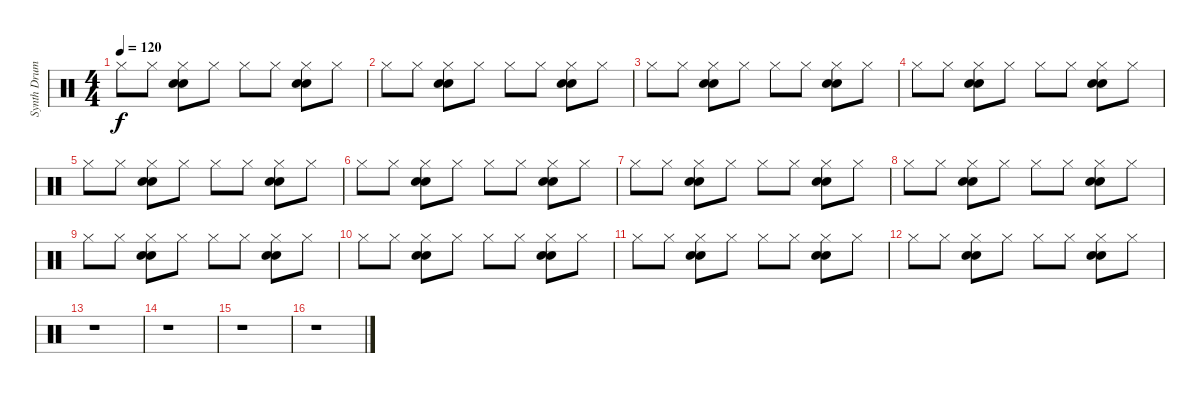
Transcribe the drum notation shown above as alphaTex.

\track ("Synth Drums" "Synth Drum") {instrument percussion}
\staff {score}
\articulation defaults
\ts (4 4)
\tempo 120
\clef neutral
\ks c "Hi-Hat (closed)".8{dy f} "Hi-Hat (closed)".8
("Hi-Hat (closed)" "Snare (hit) 2" "Hand Clap (hit)").8 "Hi-Hat (closed)".8 "Hi-Hat (closed)".8 "Hi-Hat (closed)".8 ("Hi-Hat (closed)" "Snare (hit) 2" "Hand Clap (hit)").8 "Hi-Hat (closed)".8 |
"Hi-Hat (closed)".8 "Hi-Hat (closed)".8 ("Hi-Hat (closed)" "Snare (hit) 2" "Hand Clap (hit)").8 "Hi-Hat (closed)".8 "Hi-Hat (closed)".8 "Hi-Hat (closed)".8 ("Hi-Hat (closed)" "Snare (hit) 2" "Hand Clap (hit)").8 "Hi-Hat (closed)".8 |
"Hi-Hat (closed)".8 "Hi-Hat (closed)".8 ("Hi-Hat (closed)" "Snare (hit) 2" "Hand Clap (hit)").8 "Hi-Hat (closed)".8 "Hi-Hat (closed)".8 "Hi-Hat (closed)".8 ("Hi-Hat (closed)" "Snare (hit) 2" "Hand Clap (hit)").8 "Hi-Hat (closed)".8 |
"Hi-Hat (closed)".8 "Hi-Hat (closed)".8 ("Hi-Hat (closed)" "Snare (hit) 2" "Hand Clap (hit)").8 "Hi-Hat (closed)".8 "Hi-Hat (closed)".8 "Hi-Hat (closed)".8 ("Hi-Hat (closed)" "Snare (hit) 2" "Hand Clap (hit)").8 "Hi-Hat (closed)".8 |
"Hi-Hat (closed)".8 "Hi-Hat (closed)".8 ("Hi-Hat (closed)" "Snare (hit) 2" "Hand Clap (hit)").8 "Hi-Hat (closed)".8 "Hi-Hat (closed)".8 "Hi-Hat (closed)".8 ("Hi-Hat (closed)" "Snare (hit) 2" "Hand Clap (hit)").8 "Hi-Hat (closed)".8 |
"Hi-Hat (closed)".8 "Hi-Hat (closed)".8 ("Hi-Hat (closed)" "Snare (hit) 2" "Hand Clap (hit)").8 "Hi-Hat (closed)".8 "Hi-Hat (closed)".8 "Hi-Hat (closed)".8 ("Hi-Hat (closed)" "Snare (hit) 2" "Hand Clap (hit)").8 "Hi-Hat (closed)".8 |
"Hi-Hat (closed)".8 "Hi-Hat (closed)".8 ("Hi-Hat (closed)" "Snare (hit) 2" "Hand Clap (hit)").8 "Hi-Hat (closed)".8 "Hi-Hat (closed)".8 "Hi-Hat (closed)".8 ("Hi-Hat (closed)" "Snare (hit) 2" "Hand Clap (hit)").8 "Hi-Hat (closed)".8 |
"Hi-Hat (closed)".8 "Hi-Hat (closed)".8 ("Hi-Hat (closed)" "Snare (hit) 2" "Hand Clap (hit)").8 "Hi-Hat (closed)".8 "Hi-Hat (closed)".8 "Hi-Hat (closed)".8 ("Hi-Hat (closed)" "Snare (hit) 2" "Hand Clap (hit)").8 "Hi-Hat (closed)".8 |
"Hi-Hat (closed)".8{volume 0} "Hi-Hat (closed)".8 ("Hi-Hat (closed)" "Snare (hit) 2" "Hand Clap (hit)").8 "Hi-Hat (closed)".8 "Hi-Hat (closed)".8 "Hi-Hat (closed)".8 ("Hi-Hat (closed)" "Snare (hit) 2" "Hand Clap (hit)").8 "Hi-Hat (closed)".8 |
"Hi-Hat (closed)".8 "Hi-Hat (closed)".8 ("Hi-Hat (closed)" "Snare (hit) 2" "Hand Clap (hit)").8 "Hi-Hat (closed)".8 "Hi-Hat (closed)".8 "Hi-Hat (closed)".8 ("Hi-Hat (closed)" "Snare (hit) 2" "Hand Clap (hit)").8 "Hi-Hat (closed)".8 |
"Hi-Hat (closed)".8 "Hi-Hat (closed)".8 ("Hi-Hat (closed)" "Snare (hit) 2" "Hand Clap (hit)").8 "Hi-Hat (closed)".8 "Hi-Hat (closed)".8 "Hi-Hat (closed)".8 ("Hi-Hat (closed)" "Snare (hit) 2" "Hand Clap (hit)").8 "Hi-Hat (closed)".8 |
"Hi-Hat (closed)".8 "Hi-Hat (closed)".8 ("Hi-Hat (closed)" "Snare (hit) 2" "Hand Clap (hit)").8 "Hi-Hat (closed)".8 "Hi-Hat (closed)".8 "Hi-Hat (closed)".8 ("Hi-Hat (closed)" "Snare (hit) 2" "Hand Clap (hit)").8 "Hi-Hat (closed)".8 |
r.1 |
r.1 |
r.1 |
r.1
